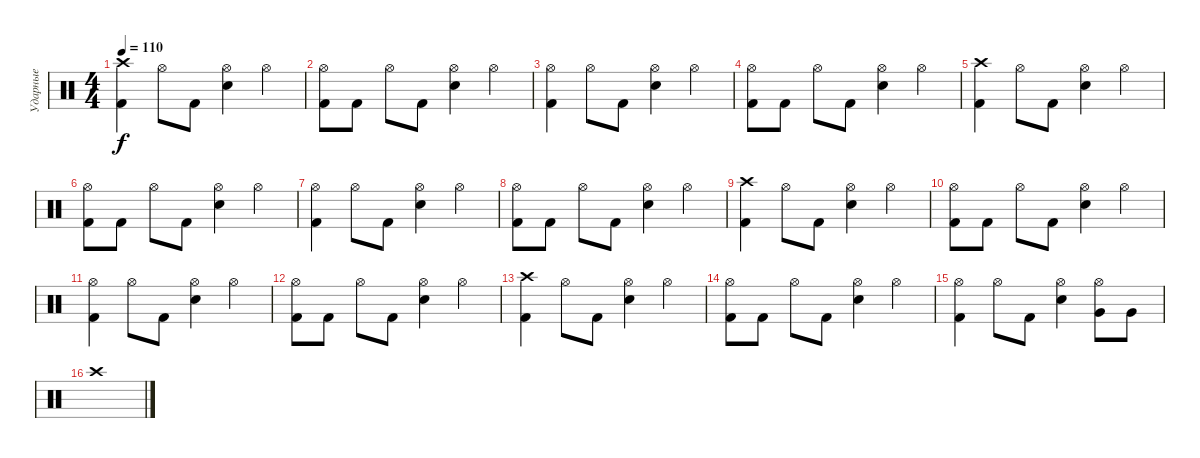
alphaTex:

\track ("Ударные" "Ударные") {instrument percussion}
\staff {score}
\articulation defaults
\ts (4 4)
\tempo 110
\clef neutral
\ks c
("Crash high (hit)" "Kick (hit) 2").4{dy f} "Hi-Hat (open)".8 "Kick (hit) 2".8 ("Hi-Hat (open)" "Snare (hit) 2").4 "Hi-Hat (open)".4 |
("Hi-Hat (open)" "Kick (hit) 2").8 "Kick (hit) 2".8 "Hi-Hat (open)".8 "Kick (hit) 2".8 ("Hi-Hat (open)" "Snare (hit) 2").4 "Hi-Hat (open)".4 |
("Hi-Hat (open)" "Kick (hit) 2").4 "Hi-Hat (open)".8 "Kick (hit) 2".8 ("Hi-Hat (open)" "Snare (hit) 2").4 "Hi-Hat (open)".4 |
("Hi-Hat (open)" "Kick (hit) 2").8 "Kick (hit) 2".8 "Hi-Hat (open)".8 "Kick (hit) 2".8 ("Hi-Hat (open)" "Snare (hit) 2").4 "Hi-Hat (open)".4 |
("Crash high (hit)" "Kick (hit) 2").4 "Hi-Hat (open)".8 "Kick (hit) 2".8 ("Hi-Hat (open)" "Snare (hit) 2").4 "Hi-Hat (open)".4 |
("Hi-Hat (open)" "Kick (hit) 2").8 "Kick (hit) 2".8 "Hi-Hat (open)".8 "Kick (hit) 2".8 ("Hi-Hat (open)" "Snare (hit) 2").4 "Hi-Hat (open)".4 |
("Hi-Hat (open)" "Kick (hit) 2").4 "Hi-Hat (open)".8 "Kick (hit) 2".8 ("Hi-Hat (open)" "Snare (hit) 2").4 "Hi-Hat (open)".4 |
("Hi-Hat (open)" "Kick (hit) 2").8 "Kick (hit) 2".8 "Hi-Hat (open)".8 "Kick (hit) 2".8 ("Hi-Hat (open)" "Snare (hit) 2").4 "Hi-Hat (open)".4 |
("Crash high (hit)" "Kick (hit) 2").4 "Hi-Hat (open)".8 "Kick (hit) 2".8 ("Hi-Hat (open)" "Snare (hit) 2").4 "Hi-Hat (open)".4 |
("Hi-Hat (open)" "Kick (hit) 2").8 "Kick (hit) 2".8 "Hi-Hat (open)".8 "Kick (hit) 2".8 ("Hi-Hat (open)" "Snare (hit) 2").4 "Hi-Hat (open)".4 |
("Hi-Hat (open)" "Kick (hit) 2").4 "Hi-Hat (open)".8 "Kick (hit) 2".8 ("Hi-Hat (open)" "Snare (hit) 2").4 "Hi-Hat (open)".4 |
("Hi-Hat (open)" "Kick (hit) 2").8 "Kick (hit) 2".8 "Hi-Hat (open)".8 "Kick (hit) 2".8 ("Hi-Hat (open)" "Snare (hit) 2").4 "Hi-Hat (open)".4 |
("Crash high (hit)" "Kick (hit) 2").4 "Hi-Hat (open)".8 "Kick (hit) 2".8 ("Hi-Hat (open)" "Snare (hit) 2").4 "Hi-Hat (open)".4 |
("Hi-Hat (open)" "Kick (hit) 2").8 "Kick (hit) 2".8 "Hi-Hat (open)".8 "Kick (hit) 2".8 ("Hi-Hat (open)" "Snare (hit) 2").4 "Hi-Hat (open)".4 |
("Hi-Hat (open)" "Kick (hit) 2").4 "Hi-Hat (open)".8 "Kick (hit) 2".8 ("Hi-Hat (open)" "Snare (hit) 2").4 ("Hi-Hat (open)" "Very Low Tom (hit)").8 "Very Low Tom (hit)".8 |
"Crash high (hit)".1
